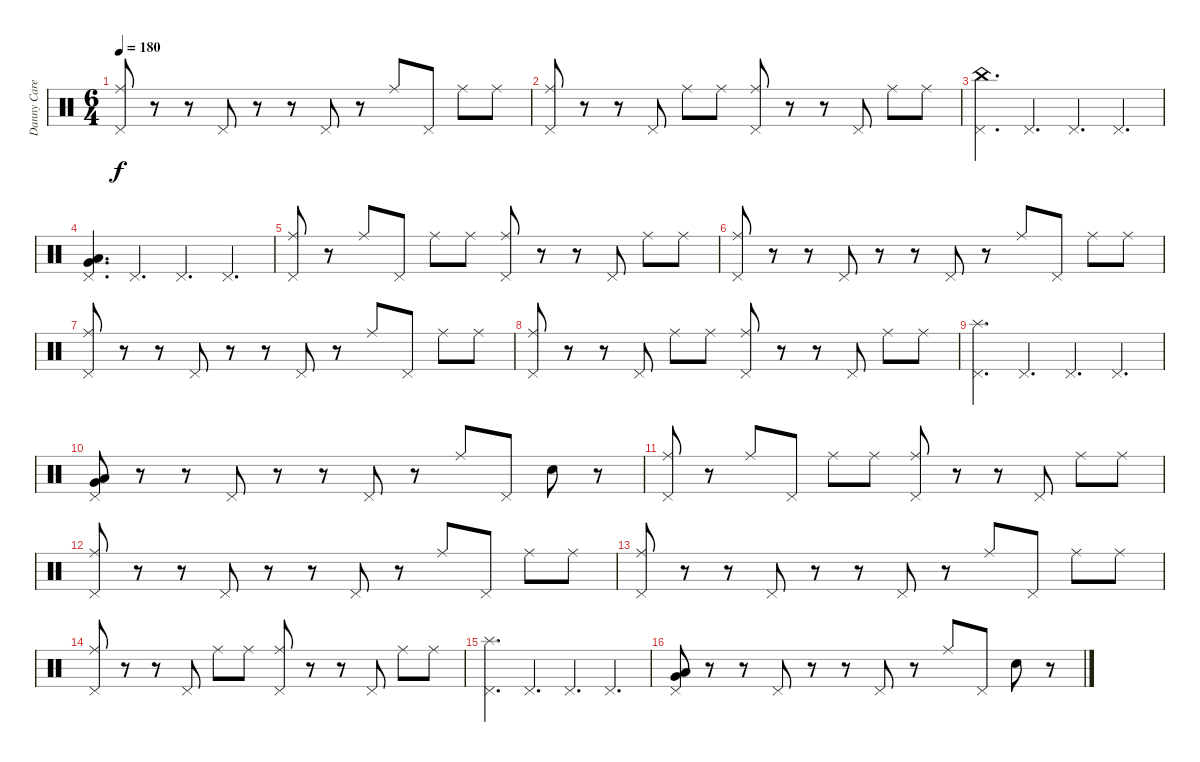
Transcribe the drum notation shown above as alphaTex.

\track ("Danny Carey" "Danny Care") {instrument percussion}
\staff {score}
\articulation defaults
\ts (6 4)
\tempo 180
\clef neutral
\ks c
("Ride (middle)" "Pedal Hi-Hat (hit)").8{dy f} r.8 r.8 "Pedal Hi-Hat (hit)".8 r.8 r.8 "Pedal Hi-Hat (hit)".8 r.8 "Ride (middle)".8 "Pedal Hi-Hat (hit)".8 "Ride (middle)".8 "Ride (middle)".8 |
("Ride (middle)" "Pedal Hi-Hat (hit)").8 r.8 r.8 "Pedal Hi-Hat (hit)".8 "Ride (middle)".8 "Ride (middle)".8 ("Ride (middle)" "Pedal Hi-Hat (hit)").8 r.8 r.8 "Pedal Hi-Hat (hit)".8 "Ride (middle)".8 "Ride (middle)".8 |
("China (hit)" "Pedal Hi-Hat (hit)").4{d} "Pedal Hi-Hat (hit)".4{d} "Pedal Hi-Hat (hit)".4{d} "Pedal Hi-Hat (hit)".4{d} |
("Very Low Tom (hit)" "Pedal Hi-Hat (hit)" "Low Floor Tom (hit)").4{d} "Pedal Hi-Hat (hit)".4{d} "Pedal Hi-Hat (hit)".4{d} "Pedal Hi-Hat (hit)".4{d} |
("Ride (middle)" "Pedal Hi-Hat (hit)").8 r.8 "Ride (middle)".8 "Pedal Hi-Hat (hit)".8 "Ride (middle)".8 "Ride (middle)".8 ("Ride (middle)" "Pedal Hi-Hat (hit)").8 r.8 r.8 "Pedal Hi-Hat (hit)".8 "Ride (middle)".8 "Ride (middle)".8 |
("Ride (middle)" "Pedal Hi-Hat (hit)").8 r.8 r.8 "Pedal Hi-Hat (hit)".8 r.8 r.8 "Pedal Hi-Hat (hit)".8 r.8 "Ride (middle)".8 "Pedal Hi-Hat (hit)".8 "Ride (middle)".8 "Ride (middle)".8 |
("Ride (middle)" "Pedal Hi-Hat (hit)").8 r.8 r.8 "Pedal Hi-Hat (hit)".8 r.8 r.8 "Pedal Hi-Hat (hit)".8 r.8 "Ride (middle)".8 "Pedal Hi-Hat (hit)".8 "Ride (middle)".8 "Ride (middle)".8 |
("Ride (middle)" "Pedal Hi-Hat (hit)").8 r.8 r.8 "Pedal Hi-Hat (hit)".8 "Ride (middle)".8 "Ride (middle)".8 ("Ride (middle)" "Pedal Hi-Hat (hit)").8 r.8 r.8 "Pedal Hi-Hat (hit)".8 "Ride (middle)".8 "Ride (middle)".8 |
("Splash (hit)" "Pedal Hi-Hat (hit)").4{d} "Pedal Hi-Hat (hit)".4{d} "Pedal Hi-Hat (hit)".4{d} "Pedal Hi-Hat (hit)".4{d} |
("Very Low Tom (hit)" "Pedal Hi-Hat (hit)" "Low Floor Tom (hit)").8 r.8 r.8 "Pedal Hi-Hat (hit)".8 r.8 r.8 "Pedal Hi-Hat (hit)".8 r.8 "Ride (middle)".8 "Pedal Hi-Hat (hit)".8 "Metronome (bell)".8 r.8 |
("Ride (middle)" "Pedal Hi-Hat (hit)").8 r.8 "Ride (middle)".8 "Pedal Hi-Hat (hit)".8 "Ride (middle)".8 "Ride (middle)".8 ("Ride (middle)" "Pedal Hi-Hat (hit)").8 r.8 r.8 "Pedal Hi-Hat (hit)".8 "Ride (middle)".8 "Ride (middle)".8 |
("Ride (middle)" "Pedal Hi-Hat (hit)").8 r.8 r.8 "Pedal Hi-Hat (hit)".8 r.8 r.8 "Pedal Hi-Hat (hit)".8 r.8 "Ride (middle)".8 "Pedal Hi-Hat (hit)".8 "Ride (middle)".8 "Ride (middle)".8 |
("Ride (middle)" "Pedal Hi-Hat (hit)").8 r.8 r.8 "Pedal Hi-Hat (hit)".8 r.8 r.8 "Pedal Hi-Hat (hit)".8 r.8 "Ride (middle)".8 "Pedal Hi-Hat (hit)".8 "Ride (middle)".8 "Ride (middle)".8 |
("Ride (middle)" "Pedal Hi-Hat (hit)").8 r.8 r.8 "Pedal Hi-Hat (hit)".8 "Ride (middle)".8 "Ride (middle)".8 ("Ride (middle)" "Pedal Hi-Hat (hit)").8 r.8 r.8 "Pedal Hi-Hat (hit)".8 "Ride (middle)".8 "Ride (middle)".8 |
("Splash (hit)" "Pedal Hi-Hat (hit)").4{d} "Pedal Hi-Hat (hit)".4{d} "Pedal Hi-Hat (hit)".4{d} "Pedal Hi-Hat (hit)".4{d} |
("Very Low Tom (hit)" "Pedal Hi-Hat (hit)" "Low Floor Tom (hit)").8 r.8 r.8 "Pedal Hi-Hat (hit)".8 r.8 r.8 "Pedal Hi-Hat (hit)".8 r.8 "Ride (middle)".8 "Pedal Hi-Hat (hit)".8 "Metronome (bell)".8 r.8
